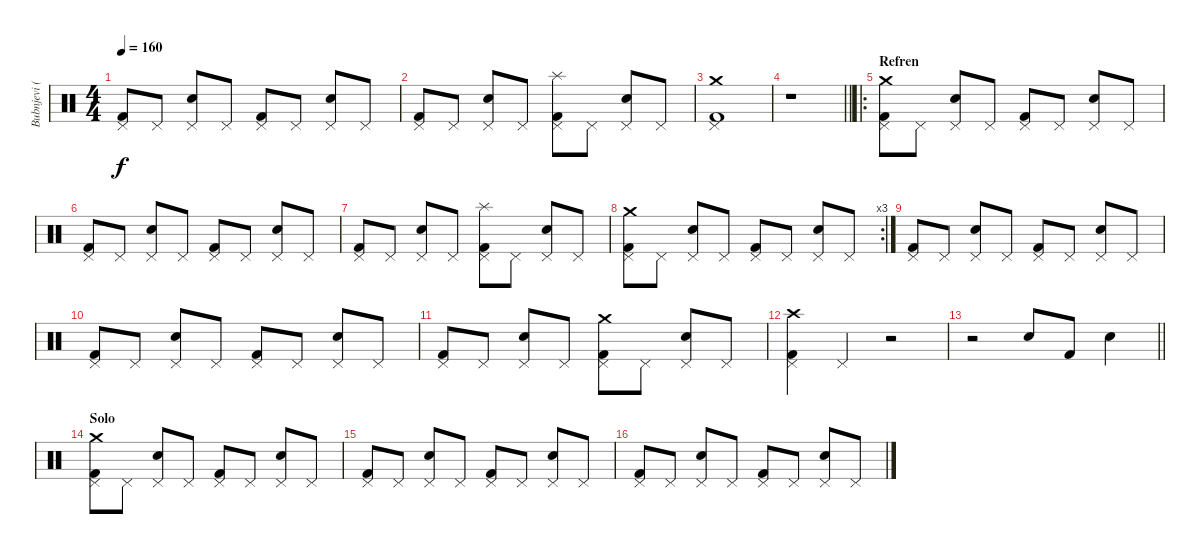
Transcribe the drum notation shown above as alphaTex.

\track ("Bubnjevi (Nasko Budimic)" "Bubnjevi (") {instrument percussion}
\staff {score}
\articulation defaults
\ts (4 4)
\tempo 160
\clef neutral
\ks c
("Pedal Hi-Hat (hit)" "Kick (hit) 2").8{dy f} "Pedal Hi-Hat (hit)".8 ("Pedal Hi-Hat (hit)" "Snare (hit) 2").8 "Pedal Hi-Hat (hit)".8 ("Pedal Hi-Hat (hit)" "Kick (hit) 2").8 "Pedal Hi-Hat (hit)".8 ("Pedal Hi-Hat (hit)" "Snare (hit) 2").8 "Pedal Hi-Hat (hit)".8 |
("Pedal Hi-Hat (hit)" "Kick (hit) 2").8 "Pedal Hi-Hat (hit)".8 ("Pedal Hi-Hat (hit)" "Snare (hit) 2").8 "Pedal Hi-Hat (hit)".8 ("Splash (hit)" "Pedal Hi-Hat (hit)" "Kick (hit) 2").8 "Pedal Hi-Hat (hit)".8 ("Pedal Hi-Hat (hit)" "Snare (hit) 2").8 "Pedal Hi-Hat (hit)".8 |
("Crash medium (hit)" "Pedal Hi-Hat (hit)" "Kick (hit) 2").1 |
\barLineRight lightlight
r.1 |
\ro
\section ("" "Refren")
("Crash medium (hit)" "Pedal Hi-Hat (hit)" "Kick (hit) 2").8 "Pedal Hi-Hat (hit)".8 ("Pedal Hi-Hat (hit)" "Snare (hit) 2").8 "Pedal Hi-Hat (hit)".8 ("Pedal Hi-Hat (hit)" "Kick (hit) 2").8 "Pedal Hi-Hat (hit)".8 ("Pedal Hi-Hat (hit)" "Snare (hit) 2").8 "Pedal Hi-Hat (hit)".8 |
("Pedal Hi-Hat (hit)" "Kick (hit) 2").8 "Pedal Hi-Hat (hit)".8 ("Pedal Hi-Hat (hit)" "Snare (hit) 2").8 "Pedal Hi-Hat (hit)".8 ("Pedal Hi-Hat (hit)" "Kick (hit) 2").8 "Pedal Hi-Hat (hit)".8 ("Pedal Hi-Hat (hit)" "Snare (hit) 2").8 "Pedal Hi-Hat (hit)".8 |
("Pedal Hi-Hat (hit)" "Kick (hit) 2").8 "Pedal Hi-Hat (hit)".8 ("Pedal Hi-Hat (hit)" "Snare (hit) 2").8 "Pedal Hi-Hat (hit)".8 ("Splash (hit)" "Pedal Hi-Hat (hit)" "Kick (hit) 2").8 "Pedal Hi-Hat (hit)".8 ("Pedal Hi-Hat (hit)" "Snare (hit) 2").8 "Pedal Hi-Hat (hit)".8 |
\rc 3
("Crash medium (hit)" "Pedal Hi-Hat (hit)" "Kick (hit) 2").8 "Pedal Hi-Hat (hit)".8 ("Pedal Hi-Hat (hit)" "Snare (hit) 2").8 "Pedal Hi-Hat (hit)".8 ("Pedal Hi-Hat (hit)" "Kick (hit) 2").8 "Pedal Hi-Hat (hit)".8 ("Pedal Hi-Hat (hit)" "Snare (hit) 2").8 "Pedal Hi-Hat (hit)".8 |
("Pedal Hi-Hat (hit)" "Kick (hit) 2").8 "Pedal Hi-Hat (hit)".8 ("Pedal Hi-Hat (hit)" "Snare (hit) 2").8 "Pedal Hi-Hat (hit)".8 ("Pedal Hi-Hat (hit)" "Kick (hit) 2").8 "Pedal Hi-Hat (hit)".8 ("Pedal Hi-Hat (hit)" "Snare (hit) 2").8 "Pedal Hi-Hat (hit)".8 |
("Pedal Hi-Hat (hit)" "Kick (hit) 2").8 "Pedal Hi-Hat (hit)".8 ("Pedal Hi-Hat (hit)" "Snare (hit) 2").8 "Pedal Hi-Hat (hit)".8 ("Pedal Hi-Hat (hit)" "Kick (hit) 2").8 "Pedal Hi-Hat (hit)".8 ("Pedal Hi-Hat (hit)" "Snare (hit) 2").8 "Pedal Hi-Hat (hit)".8 |
("Pedal Hi-Hat (hit)" "Kick (hit) 2").8 "Pedal Hi-Hat (hit)".8 ("Pedal Hi-Hat (hit)" "Snare (hit) 2").8 "Pedal Hi-Hat (hit)".8 ("Crash medium (hit)" "Pedal Hi-Hat (hit)" "Kick (hit) 2").8 "Pedal Hi-Hat (hit)".8 ("Pedal Hi-Hat (hit)" "Snare (hit) 2").8 "Pedal Hi-Hat (hit)".8 |
("Crash high (hit)" "Pedal Hi-Hat (hit)" "Kick (hit) 2").4 "Pedal Hi-Hat (hit)".4 r.2 |
\barLineRight lightlight
r.2 "Snare (hit) 2".8 "Kick (hit) 2".8 "Snare (hit) 2".4 |
\section ("" "Solo")
("Crash medium (hit)" "Pedal Hi-Hat (hit)" "Kick (hit) 2").8 "Pedal Hi-Hat (hit)".8 ("Pedal Hi-Hat (hit)" "Snare (hit) 2").8 "Pedal Hi-Hat (hit)".8 ("Pedal Hi-Hat (hit)" "Kick (hit) 2").8 "Pedal Hi-Hat (hit)".8 ("Pedal Hi-Hat (hit)" "Snare (hit) 2").8 "Pedal Hi-Hat (hit)".8 |
("Pedal Hi-Hat (hit)" "Kick (hit) 2").8 "Pedal Hi-Hat (hit)".8 ("Pedal Hi-Hat (hit)" "Snare (hit) 2").8 "Pedal Hi-Hat (hit)".8 ("Pedal Hi-Hat (hit)" "Kick (hit) 2").8 "Pedal Hi-Hat (hit)".8 ("Pedal Hi-Hat (hit)" "Snare (hit) 2").8 "Pedal Hi-Hat (hit)".8 |
("Pedal Hi-Hat (hit)" "Kick (hit) 2").8 "Pedal Hi-Hat (hit)".8 ("Pedal Hi-Hat (hit)" "Snare (hit) 2").8 "Pedal Hi-Hat (hit)".8 ("Pedal Hi-Hat (hit)" "Kick (hit) 2").8 "Pedal Hi-Hat (hit)".8 ("Pedal Hi-Hat (hit)" "Snare (hit) 2").8 "Pedal Hi-Hat (hit)".8
